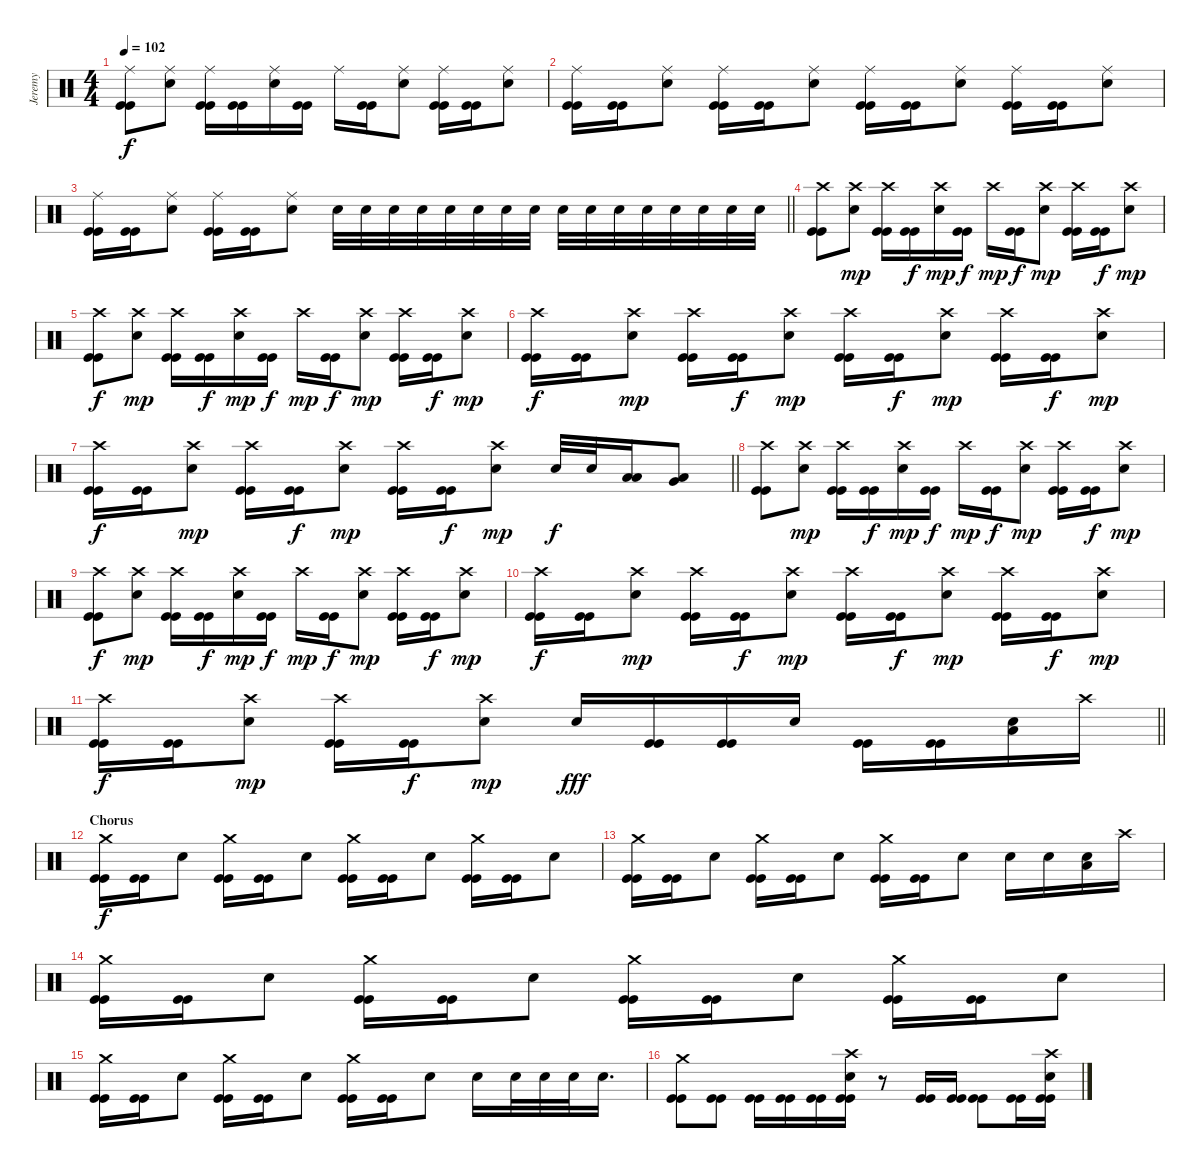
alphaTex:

\track ("Jeremy" "Jeremy") {instrument percussion}
\staff {score}
\articulation defaults
\ts (4 4)
\tempo 102
\clef neutral
\ks c
("Ride (middle)" "Kick (hit)" "Kick (hit)").8{dy f} ("Ride (middle)" "Electric Snare (hit)").8 ("Ride (middle)" "Kick (hit)" "Kick (hit)").16 ("Kick (hit)" "Kick (hit)").16 ("Ride (middle)" "Electric Snare (hit)").16 ("Kick (hit)" "Kick (hit)").16 "Ride (middle)".16 ("Kick (hit)" "Kick (hit)").16 ("Ride (middle)" "Electric Snare (hit)").8 ("Ride (middle)" "Kick (hit)" "Kick (hit)").16 ("Kick (hit)" "Kick (hit)").16 ("Ride (middle)" "Electric Snare (hit)").8 |
("Ride (middle)" "Kick (hit)" "Kick (hit)").16 ("Kick (hit)" "Kick (hit)").16 ("Ride (middle)" "Electric Snare (hit)").8 ("Ride (middle)" "Kick (hit)" "Kick (hit)").16 ("Kick (hit)" "Kick (hit)").16 ("Ride (middle)" "Electric Snare (hit)").8 ("Ride (middle)" "Kick (hit)" "Kick (hit)").16 ("Kick (hit)" "Kick (hit)").16 ("Ride (middle)" "Electric Snare (hit)").8 ("Ride (middle)" "Kick (hit)" "Kick (hit)").16 ("Kick (hit)" "Kick (hit)").16 ("Ride (middle)" "Electric Snare (hit)").8 |
\barLineRight lightlight
("Ride (middle)" "Kick (hit)" "Kick (hit)").16 ("Kick (hit)" "Kick (hit)").16 ("Ride (middle)" "Electric Snare (hit)").8 ("Ride (middle)" "Kick (hit)" "Kick (hit)").16 ("Kick (hit)" "Kick (hit)").16 ("Ride (middle)" "Electric Snare (hit)").8 "Electric Snare (hit)".32 "Electric Snare (hit)".32 "Electric Snare (hit)".32 "Electric Snare (hit)".32 "Electric Snare (hit)".32 "Electric Snare (hit)".32 "Electric Snare (hit)".32 "Electric Snare (hit)".32 "Electric Snare (hit)".32 "Electric Snare (hit)".32 "Electric Snare (hit)".32 "Electric Snare (hit)".32 "Electric Snare (hit)".32 "Electric Snare (hit)".32 "Electric Snare (hit)".32 "Electric Snare (hit)".32 |
("Crash high (hit)" "Kick (hit)" "Kick (hit)").8 ("Crash high (hit)" "Electric Snare (hit)").8{dy mp} ("Crash high (hit)" "Kick (hit)" "Kick (hit)").16 ("Kick (hit)" "Kick (hit)").16{dy f} ("Crash high (hit)" "Electric Snare (hit)").16{dy mp} ("Kick (hit)" "Kick (hit)").16{dy f} "Crash high (hit)".16{dy mp} ("Kick (hit)" "Kick (hit)").16{dy f} ("Crash high (hit)" "Electric Snare (hit)").8{dy mp} ("Crash high (hit)" "Kick (hit)" "Kick (hit)").16 ("Kick (hit)" "Kick (hit)").16{dy f} ("Crash high (hit)" "Electric Snare (hit)").8{dy mp} |
("Crash high (hit)" "Kick (hit)" "Kick (hit)").8{dy f} ("Crash high (hit)" "Electric Snare (hit)").8{dy mp} ("Crash high (hit)" "Kick (hit)" "Kick (hit)").16 ("Kick (hit)" "Kick (hit)").16{dy f} ("Crash high (hit)" "Electric Snare (hit)").16{dy mp} ("Kick (hit)" "Kick (hit)").16{dy f} "Crash high (hit)".16{dy mp} ("Kick (hit)" "Kick (hit)").16{dy f} ("Crash high (hit)" "Electric Snare (hit)").8{dy mp} ("Crash high (hit)" "Kick (hit)" "Kick (hit)").16 ("Kick (hit)" "Kick (hit)").16{dy f} ("Crash high (hit)" "Electric Snare (hit)").8{dy mp} |
("Crash high (hit)" "Kick (hit)" "Kick (hit)").16{dy f} ("Kick (hit)" "Kick (hit)").16 ("Crash high (hit)" "Electric Snare (hit)").8{dy mp} ("Crash high (hit)" "Kick (hit)" "Kick (hit)").16 ("Kick (hit)" "Kick (hit)").16{dy f} ("Crash high (hit)" "Electric Snare (hit)").8{dy mp} ("Crash high (hit)" "Kick (hit)" "Kick (hit)").16 ("Kick (hit)" "Kick (hit)").16{dy f} ("Crash high (hit)" "Electric Snare (hit)").8{dy mp} ("Crash high (hit)" "Kick (hit)" "Kick (hit)").16 ("Kick (hit)" "Kick (hit)").16{dy f} ("Crash high (hit)" "Electric Snare (hit)").8{dy mp} |
\barLineRight lightlight
("Crash high (hit)" "Kick (hit)" "Kick (hit)").16{dy f} ("Kick (hit)" "Kick (hit)").16 ("Crash high (hit)" "Electric Snare (hit)").8{dy mp} ("Crash high (hit)" "Kick (hit)" "Kick (hit)").16 ("Kick (hit)" "Kick (hit)").16{dy f} ("Crash high (hit)" "Electric Snare (hit)").8{dy mp} ("Crash high (hit)" "Kick (hit)" "Kick (hit)").16 ("Kick (hit)" "Kick (hit)").16{dy f} ("Crash high (hit)" "Electric Snare (hit)").8{dy mp} "Electric Snare (hit)".32{dy f} "Electric Snare (hit)".32 ("Low Tom (hit)" "Low Tom (hit)").16 ("Low Tom (hit)" "Very Low Tom (hit)").8 |
("Crash high (hit)" "Kick (hit)" "Kick (hit)").8 ("Crash high (hit)" "Electric Snare (hit)").8{dy mp} ("Crash high (hit)" "Kick (hit)" "Kick (hit)").16 ("Kick (hit)" "Kick (hit)").16{dy f} ("Crash high (hit)" "Electric Snare (hit)").16{dy mp} ("Kick (hit)" "Kick (hit)").16{dy f} "Crash high (hit)".16{dy mp} ("Kick (hit)" "Kick (hit)").16{dy f} ("Crash high (hit)" "Electric Snare (hit)").8{dy mp} ("Crash high (hit)" "Kick (hit)" "Kick (hit)").16 ("Kick (hit)" "Kick (hit)").16{dy f} ("Crash high (hit)" "Electric Snare (hit)").8{dy mp} |
("Crash high (hit)" "Kick (hit)" "Kick (hit)").8{dy f} ("Crash high (hit)" "Electric Snare (hit)").8{dy mp} ("Crash high (hit)" "Kick (hit)" "Kick (hit)").16 ("Kick (hit)" "Kick (hit)").16{dy f} ("Crash high (hit)" "Electric Snare (hit)").16{dy mp} ("Kick (hit)" "Kick (hit)").16{dy f} "Crash high (hit)".16{dy mp} ("Kick (hit)" "Kick (hit)").16{dy f} ("Crash high (hit)" "Electric Snare (hit)").8{dy mp} ("Crash high (hit)" "Kick (hit)" "Kick (hit)").16 ("Kick (hit)" "Kick (hit)").16{dy f} ("Crash high (hit)" "Electric Snare (hit)").8{dy mp} |
("Crash high (hit)" "Kick (hit)" "Kick (hit)").16{dy f} ("Kick (hit)" "Kick (hit)").16 ("Crash high (hit)" "Electric Snare (hit)").8{dy mp} ("Crash high (hit)" "Kick (hit)" "Kick (hit)").16 ("Kick (hit)" "Kick (hit)").16{dy f} ("Crash high (hit)" "Electric Snare (hit)").8{dy mp} ("Crash high (hit)" "Kick (hit)" "Kick (hit)").16 ("Kick (hit)" "Kick (hit)").16{dy f} ("Crash high (hit)" "Electric Snare (hit)").8{dy mp} ("Crash high (hit)" "Kick (hit)" "Kick (hit)").16 ("Kick (hit)" "Kick (hit)").16{dy f} ("Crash high (hit)" "Electric Snare (hit)").8{dy mp} |
\barLineRight lightlight
("Crash high (hit)" "Kick (hit)" "Kick (hit)").16{dy f} ("Kick (hit)" "Kick (hit)").16 ("Crash high (hit)" "Electric Snare (hit)").8{dy mp} ("Crash high (hit)" "Kick (hit)" "Kick (hit)").16 ("Kick (hit)" "Kick (hit)").16{dy f} ("Crash high (hit)" "Electric Snare (hit)").8{dy mp} "Electric Snare (hit)".16{dy fff} ("Kick (hit)" "Kick (hit)").16 ("Kick (hit)" "Kick (hit)").16 "Electric Snare (hit)".16 ("Kick (hit)" "Kick (hit)").16 ("Kick (hit)" "Kick (hit)").16 ("Electric Snare (hit)" "Low Tom (hit)").16 "Crash high (hit)".16 |
\section ("" "Chorus")
("Crash medium (hit)" "Kick (hit)" "Kick (hit)").16{dy f} ("Kick (hit)" "Kick (hit)").16 "Electric Snare (hit)".8 ("Crash medium (hit)" "Kick (hit)" "Kick (hit)").16 ("Kick (hit)" "Kick (hit)").16 "Electric Snare (hit)".8 ("Crash medium (hit)" "Kick (hit)" "Kick (hit)").16 ("Kick (hit)" "Kick (hit)").16 "Electric Snare (hit)".8 ("Crash medium (hit)" "Kick (hit)" "Kick (hit)").16 ("Kick (hit)" "Kick (hit)").16 "Electric Snare (hit)".8 |
("Crash medium (hit)" "Kick (hit)" "Kick (hit)").16 ("Kick (hit)" "Kick (hit)").16 "Electric Snare (hit)".8 ("Crash medium (hit)" "Kick (hit)" "Kick (hit)").16 ("Kick (hit)" "Kick (hit)").16 "Electric Snare (hit)".8 ("Crash medium (hit)" "Kick (hit)" "Kick (hit)").16 ("Kick (hit)" "Kick (hit)").16 "Electric Snare (hit)".8 "Electric Snare (hit)".16 "Electric Snare (hit)".16 ("Electric Snare (hit)" "Low Tom (hit)").16 "Crash high (hit)".16 |
("Crash medium (hit)" "Kick (hit)" "Kick (hit)").16 ("Kick (hit)" "Kick (hit)").16 "Electric Snare (hit)".8 ("Crash medium (hit)" "Kick (hit)" "Kick (hit)").16 ("Kick (hit)" "Kick (hit)").16 "Electric Snare (hit)".8 ("Crash medium (hit)" "Kick (hit)" "Kick (hit)").16 ("Kick (hit)" "Kick (hit)").16 "Electric Snare (hit)".8 ("Crash medium (hit)" "Kick (hit)" "Kick (hit)").16 ("Kick (hit)" "Kick (hit)").16 "Electric Snare (hit)".8 |
("Crash medium (hit)" "Kick (hit)" "Kick (hit)").16 ("Kick (hit)" "Kick (hit)").16 "Electric Snare (hit)".8 ("Crash medium (hit)" "Kick (hit)" "Kick (hit)").16 ("Kick (hit)" "Kick (hit)").16 "Electric Snare (hit)".8 ("Crash medium (hit)" "Kick (hit)" "Kick (hit)").16 ("Kick (hit)" "Kick (hit)").16 "Electric Snare (hit)".8 "Electric Snare (hit)".16 "Electric Snare (hit)".32 "Electric Snare (hit)".32 "Electric Snare (hit)".32 "Electric Snare (hit)".16{d} |
("Crash medium (hit)" "Kick (hit)" "Kick (hit)").8 ("Kick (hit)" "Kick (hit)").8 ("Kick (hit)" "Kick (hit)").16 ("Kick (hit)" "Kick (hit)").16 ("Kick (hit)" "Kick (hit)").16 ("Crash high (hit)" "Electric Snare (hit)" "Kick (hit)" "Kick (hit)").16 r.8 ("Kick (hit)" "Kick (hit)").16 ("Kick (hit)" "Kick (hit)").16 ("Kick (hit)" "Kick (hit)").8 ("Kick (hit)" "Kick (hit)").16 ("Crash high (hit)" "Electric Snare (hit)" "Kick (hit)" "Kick (hit)").16
